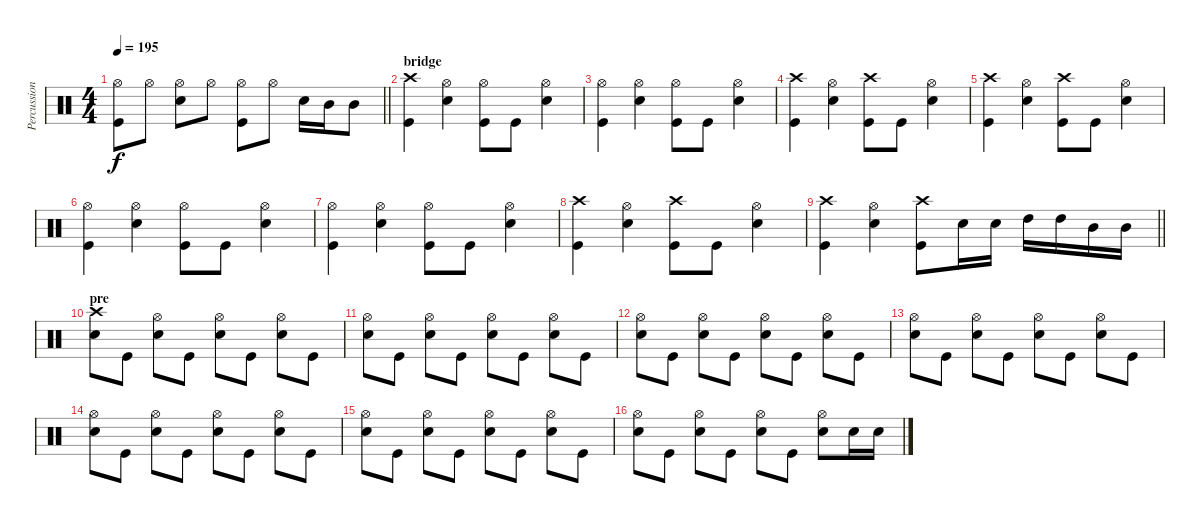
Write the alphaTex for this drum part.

\track ("Percussion" "Percussion") {instrument percussion}
\staff {score}
\articulation defaults
\ts (4 4)
\tempo 195
\clef neutral
\barLineRight lightlight
\ks c
("Hi-Hat (open)" "Kick (hit)").8{dy f} "Hi-Hat (open)".8 ("Hi-Hat (open)" "Snare (hit) 2").8 "Hi-Hat (open)".8 ("Hi-Hat (open)" "Kick (hit)").8 "Hi-Hat (open)".8 "Snare (hit) 2".16 "Mid Tom (hit)".16 "Mid Tom (hit)".8 |
\section ("" "bridge")
("Crash high (hit)" "Kick (hit)").4 ("Hi-Hat (open)" "Snare (hit) 2").4 ("Hi-Hat (open)" "Kick (hit)").8 "Kick (hit)".8 ("Hi-Hat (open)" "Snare (hit) 2").4 |
("Hi-Hat (open)" "Kick (hit)").4 ("Hi-Hat (open)" "Snare (hit) 2").4 ("Hi-Hat (open)" "Kick (hit)").8 "Kick (hit)".8 ("Hi-Hat (open)" "Snare (hit) 2").4 |
("Crash high (hit)" "Kick (hit)").4 ("Hi-Hat (open)" "Snare (hit) 2").4 ("Crash high (hit)" "Kick (hit)").8 "Kick (hit)".8 ("Hi-Hat (open)" "Snare (hit) 2").4 |
("Crash high (hit)" "Kick (hit)").4 ("Hi-Hat (open)" "Snare (hit) 2").4 ("Crash high (hit)" "Kick (hit)").8 "Kick (hit)".8 ("Hi-Hat (open)" "Snare (hit) 2").4 |
("Hi-Hat (open)" "Kick (hit)").4 ("Hi-Hat (open)" "Snare (hit) 2").4 ("Hi-Hat (open)" "Kick (hit)").8 "Kick (hit)".8 ("Hi-Hat (open)" "Snare (hit) 2").4 |
("Hi-Hat (open)" "Kick (hit)").4 ("Hi-Hat (open)" "Snare (hit) 2").4 ("Hi-Hat (open)" "Kick (hit)").8 "Kick (hit)".8 ("Hi-Hat (open)" "Snare (hit) 2").4 |
("Crash high (hit)" "Kick (hit)").4 ("Hi-Hat (open)" "Snare (hit) 2").4 ("Crash high (hit)" "Kick (hit)").8 "Kick (hit)".8 ("Hi-Hat (open)" "Snare (hit) 2").4 |
\barLineRight lightlight
("Crash high (hit)" "Kick (hit)").4 ("Hi-Hat (open)" "Snare (hit) 2").4 ("Crash high (hit)" "Kick (hit)").8 "Snare (hit) 2".16 "Snare (hit) 2".16 "High Tom (hit)".16 "High Tom (hit)".16 "Mid Tom (hit)".16 "Mid Tom (hit)".16 |
\section ("" "pre")
("Crash high (hit)" "Snare (hit) 2").8 "Kick (hit)".8 ("Hi-Hat (open)" "Snare (hit) 2").8 "Kick (hit)".8 ("Hi-Hat (open)" "Snare (hit) 2").8 "Kick (hit)".8 ("Hi-Hat (open)" "Snare (hit) 2").8 "Kick (hit)".8 |
("Hi-Hat (open)" "Snare (hit) 2").8 "Kick (hit)".8 ("Hi-Hat (open)" "Snare (hit) 2").8 "Kick (hit)".8 ("Hi-Hat (open)" "Snare (hit) 2").8 "Kick (hit)".8 ("Hi-Hat (open)" "Snare (hit) 2").8 "Kick (hit)".8 |
("Hi-Hat (open)" "Snare (hit) 2").8 "Kick (hit)".8 ("Hi-Hat (open)" "Snare (hit) 2").8 "Kick (hit)".8 ("Hi-Hat (open)" "Snare (hit) 2").8 "Kick (hit)".8 ("Hi-Hat (open)" "Snare (hit) 2").8 "Kick (hit)".8 |
("Hi-Hat (open)" "Snare (hit) 2").8 "Kick (hit)".8 ("Hi-Hat (open)" "Snare (hit) 2").8 "Kick (hit)".8 ("Hi-Hat (open)" "Snare (hit) 2").8 "Kick (hit)".8 ("Hi-Hat (open)" "Snare (hit) 2").8 "Kick (hit)".8 |
("Hi-Hat (open)" "Snare (hit) 2").8 "Kick (hit)".8 ("Hi-Hat (open)" "Snare (hit) 2").8 "Kick (hit)".8 ("Hi-Hat (open)" "Snare (hit) 2").8 "Kick (hit)".8 ("Hi-Hat (open)" "Snare (hit) 2").8 "Kick (hit)".8 |
("Hi-Hat (open)" "Snare (hit) 2").8 "Kick (hit)".8 ("Hi-Hat (open)" "Snare (hit) 2").8 "Kick (hit)".8 ("Hi-Hat (open)" "Snare (hit) 2").8 "Kick (hit)".8 ("Hi-Hat (open)" "Snare (hit) 2").8 "Kick (hit)".8 |
("Hi-Hat (open)" "Snare (hit) 2").8 "Kick (hit)".8 ("Hi-Hat (open)" "Snare (hit) 2").8 "Kick (hit)".8 ("Hi-Hat (open)" "Snare (hit) 2").8 "Kick (hit)".8 ("Hi-Hat (open)" "Snare (hit) 2").8 "Snare (hit) 2".16 "Snare (hit) 2".16
